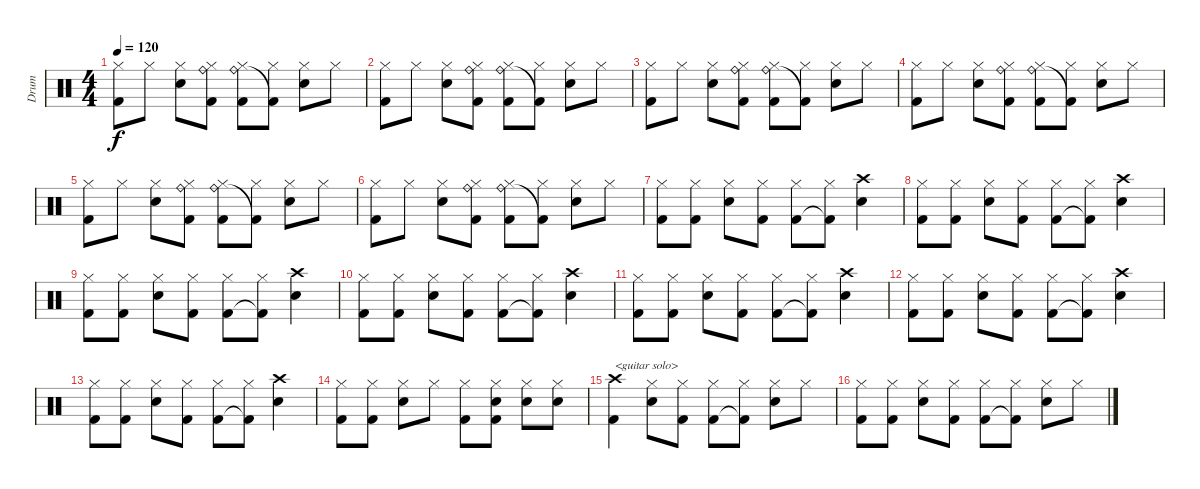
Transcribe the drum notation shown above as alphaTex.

\track ("Drum" "Drum") {instrument percussion}
\staff {score}
\articulation defaults
\ts (4 4)
\tempo 120
\clef neutral
\ks c
("Hi-Hat (closed)" "Kick (hit) 2").8{dy f} "Hi-Hat (closed)".8 ("Hi-Hat (closed)" "Snare (hit) 2").8 ("Hi-Hat (closed)" "Ride (bell)" "Kick (hit) 2").8 ("Hi-Hat (closed)" "Ride (bell)" "Kick (hit) 2").8 ("Hi-Hat (closed)" "Kick (hit) 2"{t}).8 ("Hi-Hat (closed)" "Snare (hit) 2").8 "Hi-Hat (closed)".8 |
("Hi-Hat (closed)" "Kick (hit) 2").8 "Hi-Hat (closed)".8 ("Hi-Hat (closed)" "Snare (hit) 2").8 ("Hi-Hat (closed)" "Ride (bell)" "Kick (hit) 2").8 ("Hi-Hat (closed)" "Ride (bell)" "Kick (hit) 2").8 ("Hi-Hat (closed)" "Kick (hit) 2"{t}).8 ("Hi-Hat (closed)" "Snare (hit) 2").8 "Hi-Hat (closed)".8 |
("Hi-Hat (closed)" "Kick (hit) 2").8 "Hi-Hat (closed)".8 ("Hi-Hat (closed)" "Snare (hit) 2").8 ("Hi-Hat (closed)" "Ride (bell)" "Kick (hit) 2").8 ("Hi-Hat (closed)" "Ride (bell)" "Kick (hit) 2").8 ("Hi-Hat (closed)" "Kick (hit) 2"{t}).8 ("Hi-Hat (closed)" "Snare (hit) 2").8 "Hi-Hat (closed)".8 |
("Hi-Hat (closed)" "Kick (hit) 2").8 "Hi-Hat (closed)".8 ("Hi-Hat (closed)" "Snare (hit) 2").8 ("Hi-Hat (closed)" "Ride (bell)" "Kick (hit) 2").8 ("Hi-Hat (closed)" "Ride (bell)" "Kick (hit) 2").8 ("Hi-Hat (closed)" "Kick (hit) 2"{t}).8 ("Hi-Hat (closed)" "Snare (hit) 2").8 "Hi-Hat (closed)".8 |
("Hi-Hat (closed)" "Kick (hit) 2").8 "Hi-Hat (closed)".8 ("Hi-Hat (closed)" "Snare (hit) 2").8 ("Hi-Hat (closed)" "Ride (bell)" "Kick (hit) 2").8 ("Hi-Hat (closed)" "Ride (bell)" "Kick (hit) 2").8 ("Hi-Hat (closed)" "Kick (hit) 2"{t}).8 ("Hi-Hat (closed)" "Snare (hit) 2").8 "Hi-Hat (closed)".8 |
("Hi-Hat (closed)" "Kick (hit) 2").8 "Hi-Hat (closed)".8 ("Hi-Hat (closed)" "Snare (hit) 2").8 ("Hi-Hat (closed)" "Ride (bell)" "Kick (hit) 2").8 ("Hi-Hat (closed)" "Ride (bell)" "Kick (hit) 2").8 ("Hi-Hat (closed)" "Kick (hit) 2"{t}).8 ("Hi-Hat (closed)" "Snare (hit) 2").8 "Hi-Hat (closed)".8 |
("Hi-Hat (closed)" "Kick (hit) 2").8 ("Hi-Hat (closed)" "Kick (hit) 2").8 ("Hi-Hat (closed)" "Snare (hit) 2").8 ("Hi-Hat (closed)" "Kick (hit) 2").8 ("Hi-Hat (closed)" "Kick (hit) 2").8 ("Hi-Hat (closed)" "Kick (hit) 2"{t}).8 ("Crash high (hit)" "Snare (hit) 2").4 |
("Hi-Hat (closed)" "Kick (hit) 2").8 ("Hi-Hat (closed)" "Kick (hit) 2").8 ("Hi-Hat (closed)" "Snare (hit) 2").8 ("Hi-Hat (closed)" "Kick (hit) 2").8 ("Hi-Hat (closed)" "Kick (hit) 2").8 ("Hi-Hat (closed)" "Kick (hit) 2"{t}).8 ("Crash high (hit)" "Snare (hit) 2").4 |
("Hi-Hat (closed)" "Kick (hit) 2").8 ("Hi-Hat (closed)" "Kick (hit) 2").8 ("Hi-Hat (closed)" "Snare (hit) 2").8 ("Hi-Hat (closed)" "Kick (hit) 2").8 ("Hi-Hat (closed)" "Kick (hit) 2").8 ("Hi-Hat (closed)" "Kick (hit) 2"{t}).8 ("Crash high (hit)" "Snare (hit) 2").4 |
("Hi-Hat (closed)" "Kick (hit) 2").8 ("Hi-Hat (closed)" "Kick (hit) 2").8 ("Hi-Hat (closed)" "Snare (hit) 2").8 ("Hi-Hat (closed)" "Kick (hit) 2").8 ("Hi-Hat (closed)" "Kick (hit) 2").8 ("Hi-Hat (closed)" "Kick (hit) 2"{t}).8 ("Crash high (hit)" "Snare (hit) 2").4 |
("Hi-Hat (closed)" "Kick (hit) 2").8 ("Hi-Hat (closed)" "Kick (hit) 2").8 ("Hi-Hat (closed)" "Snare (hit) 2").8 ("Hi-Hat (closed)" "Kick (hit) 2").8 ("Hi-Hat (closed)" "Kick (hit) 2").8 ("Hi-Hat (closed)" "Kick (hit) 2"{t}).8 ("Crash high (hit)" "Snare (hit) 2").4 |
("Hi-Hat (closed)" "Kick (hit) 2").8 ("Hi-Hat (closed)" "Kick (hit) 2").8 ("Hi-Hat (closed)" "Snare (hit) 2").8 ("Hi-Hat (closed)" "Kick (hit) 2").8 ("Hi-Hat (closed)" "Kick (hit) 2").8 ("Hi-Hat (closed)" "Kick (hit) 2"{t}).8 ("Crash high (hit)" "Snare (hit) 2").4 |
("Hi-Hat (closed)" "Kick (hit) 2").8 ("Hi-Hat (closed)" "Kick (hit) 2").8 ("Hi-Hat (closed)" "Snare (hit) 2").8 ("Hi-Hat (closed)" "Kick (hit) 2").8 ("Hi-Hat (closed)" "Kick (hit) 2").8 ("Hi-Hat (closed)" "Kick (hit) 2"{t}).8 ("Crash high (hit)" "Snare (hit) 2").4 |
("Hi-Hat (closed)" "Kick (hit) 2").8 ("Hi-Hat (closed)" "Kick (hit) 2").8 ("Hi-Hat (closed)" "Snare (hit) 2").8 "Hi-Hat (closed)".8 ("Hi-Hat (closed)" "Kick (hit) 2").8 ("Hi-Hat (closed)" "Snare (hit) 2" "Kick (hit) 2").8 ("Hi-Hat (closed)" "Snare (hit) 2").8 ("Hi-Hat (closed)" "Snare (hit) 2").8 |
("Crash high (hit)" "Kick (hit) 2").4{txt "<guitar solo>"} ("Hi-Hat (closed)" "Snare (hit) 2").8 ("Hi-Hat (closed)" "Kick (hit) 2").8 ("Hi-Hat (closed)" "Kick (hit) 2").8 ("Hi-Hat (closed)" "Kick (hit) 2"{t}).8 ("Hi-Hat (closed)" "Snare (hit) 2").8 "Hi-Hat (closed)".8 |
("Hi-Hat (closed)" "Kick (hit) 2").8 ("Hi-Hat (closed)" "Kick (hit) 2").8 ("Hi-Hat (closed)" "Snare (hit) 2").8 ("Hi-Hat (closed)" "Kick (hit) 2").8 ("Hi-Hat (closed)" "Kick (hit) 2").8 ("Hi-Hat (closed)" "Kick (hit) 2"{t}).8 ("Hi-Hat (closed)" "Snare (hit) 2").8 "Hi-Hat (closed)".8
